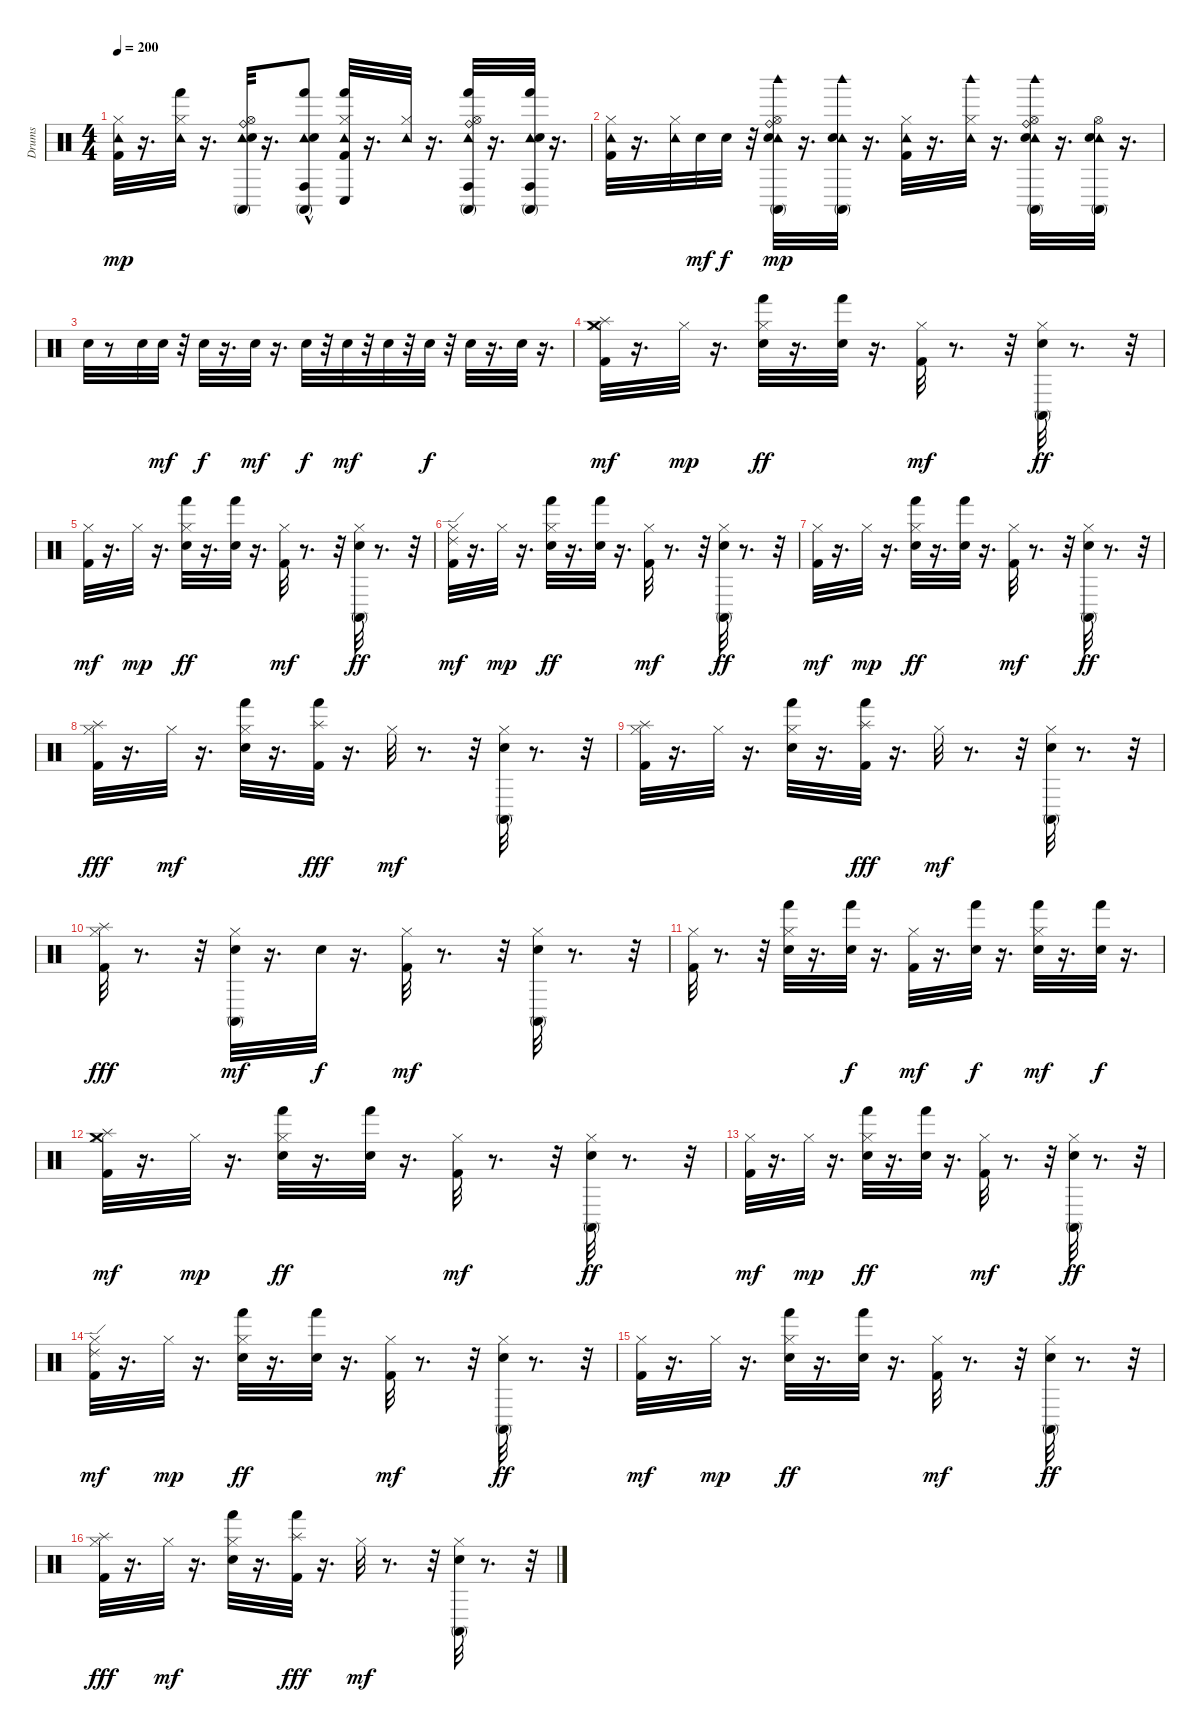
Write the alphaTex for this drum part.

\track ("Drums" "Drums") {instrument percussion}
\staff {score}
\articulation defaults
\ts (4 4)
\tempo 200
\clef neutral
\ks c
("Tambourine (hit)" "Hi-Hat (closed)" "Kick (hit) 2").32{dy mp} r.16{d} ("Hand (hit)" "Tambourine (hit)" "Hi-Hat (closed)").32 r.16{d} ("Tambourine (hit)" "Ride (bell)" "Hi-Hat (open)" "Conga high (mute)" "Electric Snare (hit)").32 r.16{d} ("Conga high (hit)" "Hand (hit)" "Tambourine (hit)" "Conga high (mute)" "Electric Snare (hit)"{hac}).8 ("Conga low (hit)" "Hand (hit)" "Tambourine (hit)" "Hi-Hat (closed)" "Kick (hit) 2").32 r.16{d} ("Tambourine (hit)" "Hi-Hat (closed)").32 r.16{d} ("Conga high (hit)" "Hand (hit)" "Tambourine (hit)" "Ride (bell)" "Hi-Hat (open)" "Conga high (mute)").32 r.16{d} ("Conga high (hit)" "Hand (hit)" "Tambourine (hit)" "Conga high (mute)" "Electric Snare (hit)").32 r.16{d} |
("Tambourine (hit)" "Hi-Hat (closed)" "Kick (hit) 2").32 r.16{d} ("Tambourine (hit)" "Hi-Hat (closed)").32 "Electric Snare (hit)".32{dy mf} "Electric Snare (hit)".32{dy f} r.32 ("Woodblock high (hit)" "Tambourine (hit)" "Hi-Hat (open)" "Ride (bell)" "Conga high (mute)" "Electric Snare (hit)").32{dy mp} r.16{d} ("Woodblock high (hit)" "Tambourine (hit)" "Conga high (mute)" "Electric Snare (hit)").32 r.16{d} ("Tambourine (hit)" "Hi-Hat (closed)" "Kick (hit) 2").32 r.16{d} ("Woodblock high (hit)" "Tambourine (hit)" "Hi-Hat (closed)").32 r.16{d} ("Woodblock high (hit)" "Tambourine (hit)" "Hi-Hat (open)" "Ride (bell)" "Conga high (mute)" "Electric Snare (hit)").32 r.16{d} ("Tambourine (hit)" "Conga high (mute)" "Electric Snare (hit)" "Hi-Hat (open)").32 r.16{d} |
"Electric Snare (hit)".32 r.8 "Electric Snare (hit)".32 "Electric Snare (hit)".32{dy mf} r.32 "Electric Snare (hit)".32{dy f} r.16{d} "Electric Snare (hit)".32{dy mf} r.16{d} "Electric Snare (hit)".32{dy f} r.32 "Electric Snare (hit)".32{dy mf} r.32 "Electric Snare (hit)".32 r.32 "Electric Snare (hit)".32{dy f} r.32 "Electric Snare (hit)".32 r.16{d} "Electric Snare (hit)".32 r.16{d} |
("Hi-Hat (closed)" "Splash (hit)" "Crash medium (hit)" "Kick (hit) 2").32{dy mf} r.16{d} "Hi-Hat (closed)".32{dy mp} r.16{d} ("Hand (hit)" "Hi-Hat (closed)" "Electric Snare (hit)").32{dy ff} r.16{d} ("Hand (hit)" "Electric Snare (hit)").32 r.16{d} ("Hi-Hat (closed)" "Kick (hit) 2").32{dy mf} r.8{d} r.32 ("Conga high (mute)" "Hi-Hat (closed)" "Electric Snare (hit)").32{dy ff} r.8{d} r.32 |
("Hi-Hat (closed)" "Kick (hit) 2").32{dy mf} r.16{d} "Hi-Hat (closed)".32{dy mp} r.16{d} ("Hand (hit)" "Hi-Hat (closed)" "Electric Snare (hit)").32{dy ff} r.16{d} ("Hand (hit)" "Electric Snare (hit)").32 r.16{d} ("Hi-Hat (closed)" "Kick (hit) 2").32{dy mf} r.8{d} r.32 ("Conga high (mute)" "Hi-Hat (closed)" "Electric Snare (hit)").32{dy ff} r.8{d} r.32 |
("Ride (edge) 2" "Hi-Hat (closed)" "Kick (hit) 2").32{dy mf} r.16{d} "Hi-Hat (closed)".32{dy mp} r.16{d} ("Hand (hit)" "Hi-Hat (closed)" "Electric Snare (hit)").32{dy ff} r.16{d} ("Hand (hit)" "Electric Snare (hit)").32 r.16{d} ("Hi-Hat (closed)" "Kick (hit) 2").32{dy mf} r.8{d} r.32 ("Conga high (mute)" "Hi-Hat (closed)" "Electric Snare (hit)").32{dy ff} r.8{d} r.32 |
("Hi-Hat (closed)" "Kick (hit) 2").32{dy mf} r.16{d} "Hi-Hat (closed)".32{dy mp} r.16{d} ("Hand (hit)" "Hi-Hat (closed)" "Electric Snare (hit)").32{dy ff} r.16{d} ("Hand (hit)" "Electric Snare (hit)").32 r.16{d} ("Hi-Hat (closed)" "Kick (hit) 2").32{dy mf} r.8{d} r.32 ("Conga high (mute)" "Hi-Hat (closed)" "Electric Snare (hit)").32{dy ff} r.8{d} r.32 |
("Hi-Hat (closed)" "Kick (hit) 2" "Splash (hit)").32{dy fff} r.16{d} "Hi-Hat (closed)".32{dy mf} r.16{d} ("Hi-Hat (closed)" "Electric Snare (hit)" "Hand (hit)").32 r.16{d} ("Hand (hit)" "Splash (hit)" "Kick (hit) 2").32{dy fff} r.16{d} "Hi-Hat (closed)".32{dy mf} r.8{d} r.32 ("Conga high (mute)" "Hi-Hat (closed)" "Electric Snare (hit)").32 r.8{d} r.32 |
("Splash (hit)" "Hi-Hat (closed)" "Kick (hit) 2").32 r.16{d} "Hi-Hat (closed)".32 r.16{d} ("Hand (hit)" "Hi-Hat (closed)" "Electric Snare (hit)").32 r.16{d} ("Hand (hit)" "Splash (hit)" "Kick (hit) 2").32{dy fff} r.16{d} "Hi-Hat (closed)".32{dy mf} r.8{d} r.32 ("Conga high (mute)" "Hi-Hat (closed)" "Electric Snare (hit)").32 r.8{d} r.32 |
("Hi-Hat (closed)" "Splash (hit)" "Kick (hit) 2").32{dy fff} r.8{d} r.32 ("Conga high (mute)" "Hi-Hat (closed)" "Electric Snare (hit)").32{dy mf} r.16{d} "Electric Snare (hit)".32{dy f} r.16{d} ("Hi-Hat (closed)" "Kick (hit) 2").32{dy mf} r.8{d} r.32 ("Conga high (mute)" "Hi-Hat (closed)" "Electric Snare (hit)").32 r.8{d} r.32 |
("Hi-Hat (closed)" "Kick (hit) 2").32 r.8{d} r.32 ("Hand (hit)" "Hi-Hat (closed)" "Electric Snare (hit)").32 r.16{d} ("Electric Snare (hit)" "Hand (hit)").32{dy f} r.16{d} ("Hi-Hat (closed)" "Kick (hit) 2").32{dy mf} r.16{d} ("Hand (hit)" "Electric Snare (hit)").32{dy f} r.16{d} ("Hand (hit)" "Hi-Hat (closed)" "Electric Snare (hit)").32{dy mf} r.16{d} ("Hand (hit)" "Electric Snare (hit)").32{dy f} r.16{d} |
("Hi-Hat (closed)" "Splash (hit)" "Crash medium (hit)" "Kick (hit) 2").32{dy mf} r.16{d} "Hi-Hat (closed)".32{dy mp} r.16{d} ("Hand (hit)" "Hi-Hat (closed)" "Electric Snare (hit)").32{dy ff} r.16{d} ("Hand (hit)" "Electric Snare (hit)").32 r.16{d} ("Hi-Hat (closed)" "Kick (hit) 2").32{dy mf} r.8{d} r.32 ("Conga high (mute)" "Hi-Hat (closed)" "Electric Snare (hit)").32{dy ff} r.8{d} r.32 |
("Hi-Hat (closed)" "Kick (hit) 2").32{dy mf} r.16{d} "Hi-Hat (closed)".32{dy mp} r.16{d} ("Hand (hit)" "Hi-Hat (closed)" "Electric Snare (hit)").32{dy ff} r.16{d} ("Hand (hit)" "Electric Snare (hit)").32 r.16{d} ("Hi-Hat (closed)" "Kick (hit) 2").32{dy mf} r.8{d} r.32 ("Conga high (mute)" "Hi-Hat (closed)" "Electric Snare (hit)").32{dy ff} r.8{d} r.32 |
("Ride (edge) 2" "Hi-Hat (closed)" "Kick (hit) 2").32{dy mf} r.16{d} "Hi-Hat (closed)".32{dy mp} r.16{d} ("Hand (hit)" "Hi-Hat (closed)" "Electric Snare (hit)").32{dy ff} r.16{d} ("Hand (hit)" "Electric Snare (hit)").32 r.16{d} ("Hi-Hat (closed)" "Kick (hit) 2").32{dy mf} r.8{d} r.32 ("Conga high (mute)" "Hi-Hat (closed)" "Electric Snare (hit)").32{dy ff} r.8{d} r.32 |
("Hi-Hat (closed)" "Kick (hit) 2").32{dy mf} r.16{d} "Hi-Hat (closed)".32{dy mp} r.16{d} ("Hand (hit)" "Hi-Hat (closed)" "Electric Snare (hit)").32{dy ff} r.16{d} ("Hand (hit)" "Electric Snare (hit)").32 r.16{d} ("Hi-Hat (closed)" "Kick (hit) 2").32{dy mf} r.8{d} r.32 ("Conga high (mute)" "Hi-Hat (closed)" "Electric Snare (hit)").32{dy ff} r.8{d} r.32 |
("Hi-Hat (closed)" "Kick (hit) 2" "Splash (hit)").32{dy fff} r.16{d} "Hi-Hat (closed)".32{dy mf} r.16{d} ("Hand (hit)" "Hi-Hat (closed)" "Electric Snare (hit)").32 r.16{d} ("Hand (hit)" "Splash (hit)" "Kick (hit) 2").32{dy fff} r.16{d} "Hi-Hat (closed)".32{dy mf} r.8{d} r.32 ("Conga high (mute)" "Hi-Hat (closed)" "Electric Snare (hit)").32 r.8{d} r.32
